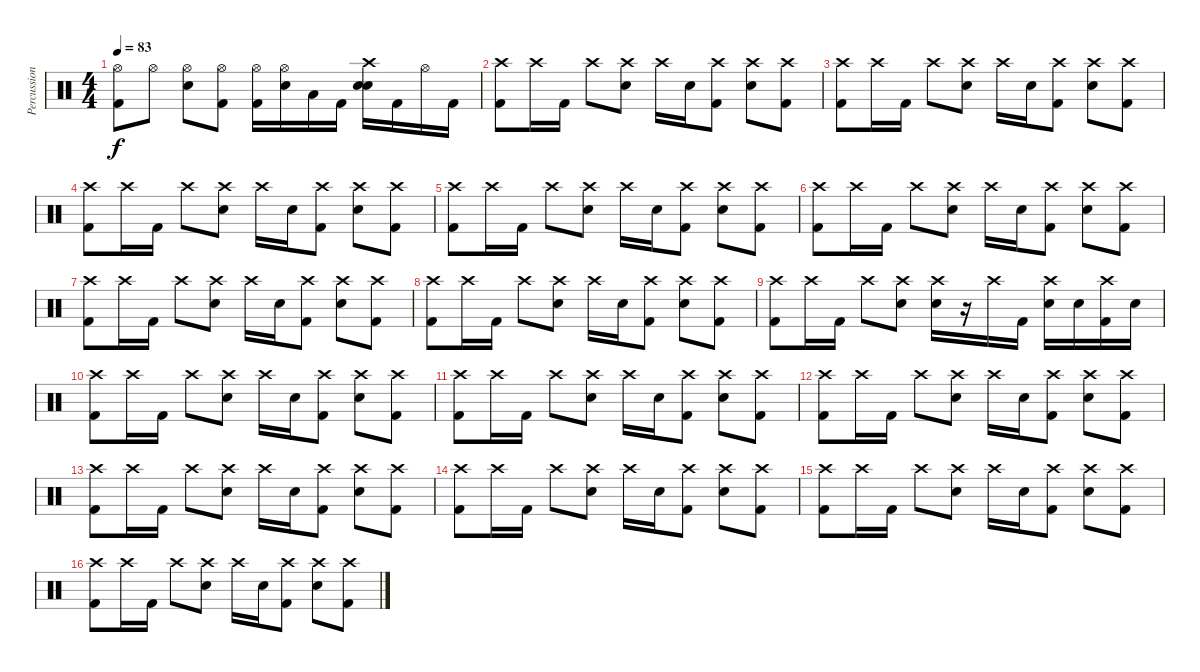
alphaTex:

\track ("Percussions" "Percussion") {instrument percussion}
\staff {score}
\articulation defaults
\ts (4 4)
\tempo 83
\clef neutral
\ks c
("Hi-Hat (open)" "Kick (hit) 2").8{dy f} "Hi-Hat (open)".8 ("Hi-Hat (open)" "Electric Snare (hit)").8 ("Hi-Hat (open)" "Kick (hit) 2").8 ("Hi-Hat (open)" "Kick (hit) 2").16 ("Hi-Hat (open)" "Electric Snare (hit)").16 "Low Tom (hit)".16 "Kick (hit) 2".16 ("Crash high (hit)" "Electric Snare (hit)" "Electric Snare (hit)").16 "Kick (hit) 2".16 "Hi-Hat (open)".16 "Kick (hit) 2".16 |
("Crash high (hit)" "Kick (hit) 2").8 "Crash high (hit)".16 "Kick (hit) 2".16 "Crash high (hit)".8 ("Crash high (hit)" "Electric Snare (hit)").8 "Crash high (hit)".16 "Electric Snare (hit)".16 ("Crash high (hit)" "Kick (hit) 2").8 ("Crash high (hit)" "Electric Snare (hit)").8 ("Crash high (hit)" "Kick (hit) 2").8 |
("Crash high (hit)" "Kick (hit) 2").8 "Crash high (hit)".16 "Kick (hit) 2".16 "Crash high (hit)".8 ("Crash high (hit)" "Electric Snare (hit)").8 "Crash high (hit)".16 "Electric Snare (hit)".16 ("Crash high (hit)" "Kick (hit) 2").8 ("Crash high (hit)" "Electric Snare (hit)").8 ("Crash high (hit)" "Kick (hit) 2").8 |
("Crash high (hit)" "Kick (hit) 2").8 "Crash high (hit)".16 "Kick (hit) 2".16 "Crash high (hit)".8 ("Crash high (hit)" "Electric Snare (hit)").8 "Crash high (hit)".16 "Electric Snare (hit)".16 ("Crash high (hit)" "Kick (hit) 2").8 ("Crash high (hit)" "Electric Snare (hit)").8 ("Crash high (hit)" "Kick (hit) 2").8 |
("Crash high (hit)" "Kick (hit) 2").8 "Crash high (hit)".16 "Kick (hit) 2".16 "Crash high (hit)".8 ("Crash high (hit)" "Electric Snare (hit)").8 "Crash high (hit)".16 "Electric Snare (hit)".16 ("Crash high (hit)" "Kick (hit) 2").8 ("Crash high (hit)" "Electric Snare (hit)").8 ("Crash high (hit)" "Kick (hit) 2").8 |
("Crash high (hit)" "Kick (hit) 2").8 "Crash high (hit)".16 "Kick (hit) 2".16 "Crash high (hit)".8 ("Crash high (hit)" "Electric Snare (hit)").8 "Crash high (hit)".16 "Electric Snare (hit)".16 ("Crash high (hit)" "Kick (hit) 2").8 ("Crash high (hit)" "Electric Snare (hit)").8 ("Crash high (hit)" "Kick (hit) 2").8 |
("Crash high (hit)" "Kick (hit) 2").8 "Crash high (hit)".16 "Kick (hit) 2".16 "Crash high (hit)".8 ("Crash high (hit)" "Electric Snare (hit)").8 "Crash high (hit)".16 "Electric Snare (hit)".16 ("Crash high (hit)" "Kick (hit) 2").8 ("Crash high (hit)" "Electric Snare (hit)").8 ("Crash high (hit)" "Kick (hit) 2").8 |
("Crash high (hit)" "Kick (hit) 2").8 "Crash high (hit)".16 "Kick (hit) 2".16 "Crash high (hit)".8 ("Crash high (hit)" "Electric Snare (hit)").8 "Crash high (hit)".16 "Electric Snare (hit)".16 ("Crash high (hit)" "Kick (hit) 2").8 ("Crash high (hit)" "Electric Snare (hit)").8 ("Crash high (hit)" "Kick (hit) 2").8 |
("Crash high (hit)" "Kick (hit) 2").8 "Crash high (hit)".16 "Kick (hit) 2".16 "Crash high (hit)".8 ("Crash high (hit)" "Electric Snare (hit)").8 ("Crash high (hit)" "Electric Snare (hit)").16 r.16 "Crash high (hit)".16 "Kick (hit) 2".16 ("Crash high (hit)" "Electric Snare (hit)").16 "Electric Snare (hit)".16 ("Crash high (hit)" "Kick (hit) 2").16 "Electric Snare (hit)".16 |
("Crash high (hit)" "Kick (hit) 2").8 "Crash high (hit)".16 "Kick (hit) 2".16 "Crash high (hit)".8 ("Crash high (hit)" "Electric Snare (hit)").8 "Crash high (hit)".16 "Electric Snare (hit)".16 ("Crash high (hit)" "Kick (hit) 2").8 ("Crash high (hit)" "Electric Snare (hit)").8 ("Crash high (hit)" "Kick (hit) 2").8 |
("Crash high (hit)" "Kick (hit) 2").8 "Crash high (hit)".16 "Kick (hit) 2".16 "Crash high (hit)".8 ("Crash high (hit)" "Electric Snare (hit)").8 "Crash high (hit)".16 "Electric Snare (hit)".16 ("Crash high (hit)" "Kick (hit) 2").8 ("Crash high (hit)" "Electric Snare (hit)").8 ("Crash high (hit)" "Kick (hit) 2").8 |
("Crash high (hit)" "Kick (hit) 2").8 "Crash high (hit)".16 "Kick (hit) 2".16 "Crash high (hit)".8 ("Crash high (hit)" "Electric Snare (hit)").8 "Crash high (hit)".16 "Electric Snare (hit)".16 ("Crash high (hit)" "Kick (hit) 2").8 ("Crash high (hit)" "Electric Snare (hit)").8 ("Crash high (hit)" "Kick (hit) 2").8 |
("Crash high (hit)" "Kick (hit) 2").8 "Crash high (hit)".16 "Kick (hit) 2".16 "Crash high (hit)".8 ("Crash high (hit)" "Electric Snare (hit)").8 "Crash high (hit)".16 "Electric Snare (hit)".16 ("Crash high (hit)" "Kick (hit) 2").8 ("Crash high (hit)" "Electric Snare (hit)").8 ("Crash high (hit)" "Kick (hit) 2").8 |
("Crash high (hit)" "Kick (hit) 2").8 "Crash high (hit)".16 "Kick (hit) 2".16 "Crash high (hit)".8 ("Crash high (hit)" "Electric Snare (hit)").8 "Crash high (hit)".16 "Electric Snare (hit)".16 ("Crash high (hit)" "Kick (hit) 2").8 ("Crash high (hit)" "Electric Snare (hit)").8 ("Crash high (hit)" "Kick (hit) 2").8 |
("Crash high (hit)" "Kick (hit) 2").8 "Crash high (hit)".16 "Kick (hit) 2".16 "Crash high (hit)".8 ("Crash high (hit)" "Electric Snare (hit)").8 "Crash high (hit)".16 "Electric Snare (hit)".16 ("Crash high (hit)" "Kick (hit) 2").8 ("Crash high (hit)" "Electric Snare (hit)").8 ("Crash high (hit)" "Kick (hit) 2").8 |
("Crash high (hit)" "Kick (hit) 2").8 "Crash high (hit)".16 "Kick (hit) 2".16 "Crash high (hit)".8 ("Crash high (hit)" "Electric Snare (hit)").8 "Crash high (hit)".16 "Electric Snare (hit)".16 ("Crash high (hit)" "Kick (hit) 2").8 ("Crash high (hit)" "Electric Snare (hit)").8 ("Crash high (hit)" "Kick (hit) 2").8
